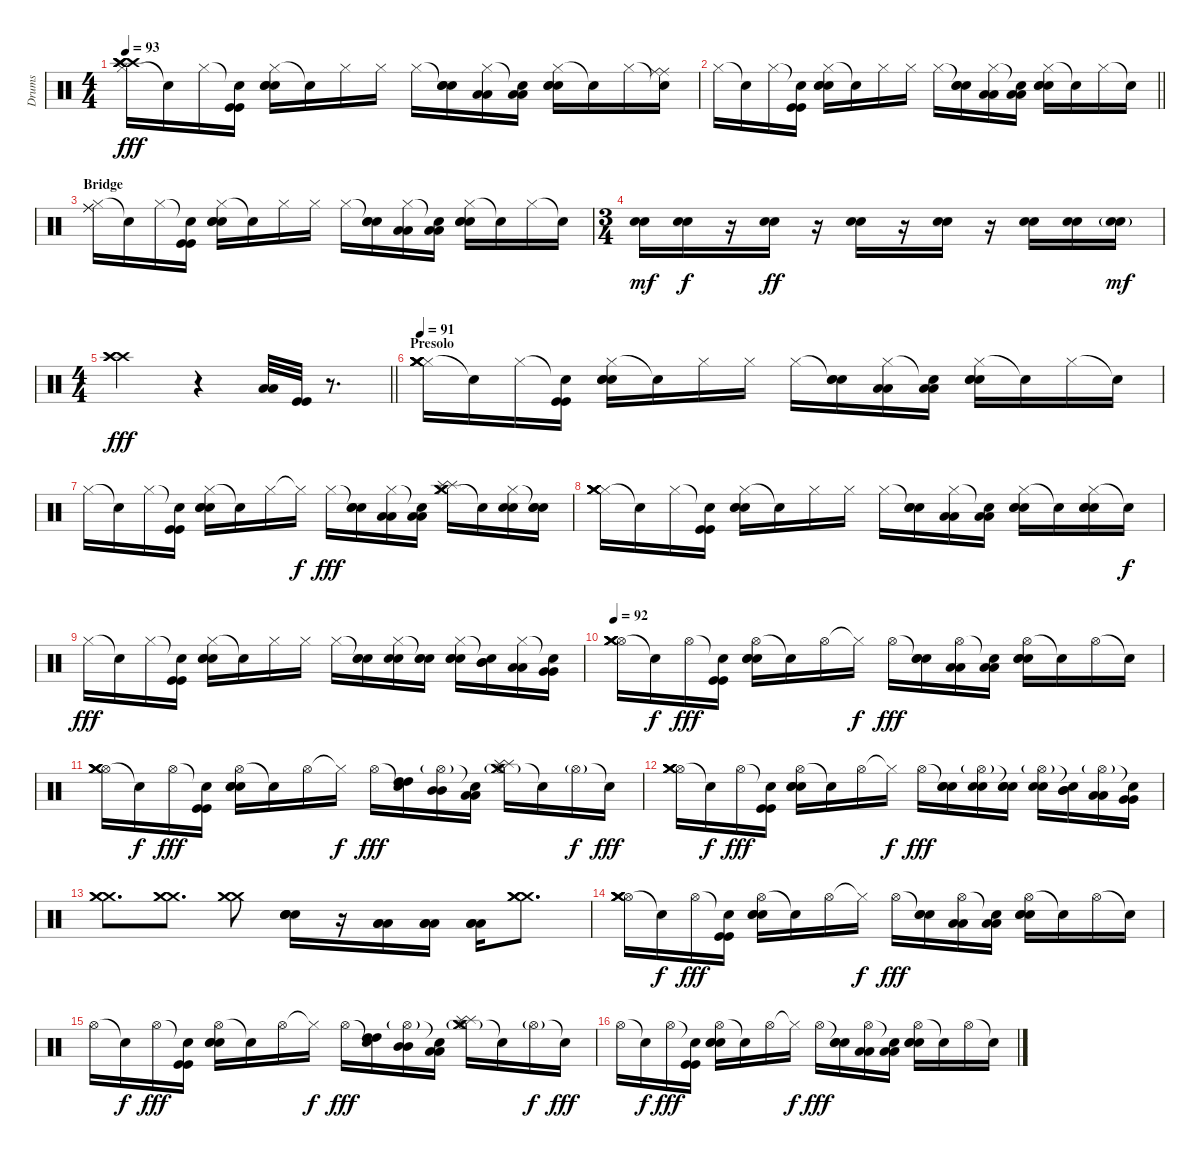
\track ("Drums" "Drums") {instrument percussion}
\staff {score}
\articulation defaults
\ts (4 4)
\tempo 93
\clef neutral
\ks c
("Hi-Hat (closed)" "Crash high (hit)" "Crash high (hit)" "Crash high (hit)" "Crash high (hit)").16{dy fff} "Snare (hit)"{t}.16 "Hi-Hat (closed)".16 ("Snare (hit)"{t} "Kick (hit)" "Kick (hit)").16 ("Hi-Hat (closed)" "Snare (hit) 2" "Snare (hit) 2" "Snare (hit) 2").16 "Snare (hit)"{t}.16 "Hi-Hat (closed)".16 "Hi-Hat (closed)".16 "Hi-Hat (closed)".16 ("Snare (hit)"{t} "Snare (hit) 2" "Snare (hit) 2").16 ("Hi-Hat (closed)" "Low Tom (hit)" "Low Tom (hit)").16 ("Snare (hit)"{t} "Low Tom (hit)" "Low Tom (hit)").16 ("Hi-Hat (closed)" "Snare (hit) 2" "Snare (hit) 2" "Snare (hit) 2").16 "Snare (hit)"{t}.16 "Hi-Hat (closed)".16 ("Snare (hit)"{t} "Ride (middle)" "Ride (middle)").16 |
\barLineRight lightlight "Hi-Hat (closed)".16 "Snare (hit)"{t}.16 "Hi-Hat (closed)".16
("Snare (hit)"{t} "Kick (hit)" "Kick (hit)").16 ("Hi-Hat (closed)" "Snare (hit) 2" "Snare (hit) 2" "Snare (hit) 2").16 "Snare (hit)"{t}.16 "Hi-Hat (closed)".16 "Hi-Hat (closed)".16 "Hi-Hat (closed)".16 ("Snare (hit)"{t} "Snare (hit) 2" "Snare (hit) 2").16 ("Hi-Hat (closed)" "Low Tom (hit)" "Low Tom (hit)").16 ("Snare (hit)"{t} "Low Tom (hit)" "Low Tom (hit)").16 ("Hi-Hat (closed)" "Snare (hit) 2" "Snare (hit) 2" "Snare (hit) 2").16 "Snare (hit)"{t}.16 "Hi-Hat (closed)".16 "Snare (hit)"{t}.16 |
\section ("" "Bridge")
("Hi-Hat (closed)" "Ride (middle)" "Ride (middle)").16 "Snare (hit)"{t}.16 "Hi-Hat (closed)".16 ("Snare (hit)"{t} "Kick (hit)" "Kick (hit)").16 ("Hi-Hat (closed)" "Snare (hit) 2" "Snare (hit) 2" "Snare (hit) 2").16 "Snare (hit)"{t}.16 "Hi-Hat (closed)".16 "Hi-Hat (closed)".16 "Hi-Hat (closed)".16 ("Snare (hit)"{t} "Snare (hit) 2" "Snare (hit) 2").16 ("Hi-Hat (closed)" "Low Tom (hit)" "Low Tom (hit)").16 ("Snare (hit)"{t} "Low Tom (hit)" "Low Tom (hit)").16 ("Hi-Hat (closed)" "Snare (hit) 2" "Snare (hit) 2" "Snare (hit) 2").16 "Snare (hit)"{t}.16 "Hi-Hat (closed)".16 "Snare (hit)"{t}.16 |
\ts (3 4)
("Snare (hit) 2" "Snare (hit) 2").16{dy mf} ("Snare (hit) 2" "Snare (hit) 2").16{dy f} r.16 ("Snare (hit) 2" "Snare (hit) 2").16{dy ff} r.16 ("Snare (hit) 2" "Snare (hit) 2").16 r.16 ("Snare (hit) 2" "Snare (hit) 2").16 r.16 ("Snare (hit) 2" "Snare (hit) 2").16 ("Snare (hit) 2" "Snare (hit) 2").16 ("Snare (hit) 2"{g} "Snare (hit) 2"{g}).16{dy mf} |
\ts (4 4)
\barLineRight lightlight
("Crash high (hit)" "Crash high (hit)" "Crash high (hit)").2{dy fff} r.4 ("Low Floor Tom (hit)" "Low Floor Tom (hit)").32 ("Kick (hit)" "Kick (hit)").32 r.8{d} |
\section ("" "Presolo")
\tempo 91
("Hi-Hat (closed)" "Crash medium (hit)" "Crash medium (hit)" "Crash medium (hit)" "Crash medium (hit)").16 "Snare (hit)"{t}.16 "Hi-Hat (closed)".16 ("Snare (hit)"{t} "Kick (hit)" "Kick (hit)").16 ("Hi-Hat (closed)" "Snare (hit) 2" "Snare (hit) 2" "Snare (hit) 2").16 "Snare (hit)"{t}.16 "Hi-Hat (closed)".16 "Hi-Hat (closed)".16 "Hi-Hat (closed)".16 ("Snare (hit)"{t} "Snare (hit) 2" "Snare (hit) 2").16 ("Hi-Hat (closed)" "Low Tom (hit)" "Low Tom (hit)").16 ("Snare (hit)"{t} "Low Tom (hit)" "Low Tom (hit)").16 ("Hi-Hat (closed)" "Snare (hit) 2" "Snare (hit) 2" "Snare (hit) 2").16 "Snare (hit)"{t}.16 "Hi-Hat (closed)".16 "Snare (hit)"{t}.16 |
"Hi-Hat (closed)".16 "Snare (hit)"{t}.16 "Hi-Hat (closed)".16 ("Snare (hit)"{t} "Kick (hit)" "Kick (hit)").16 ("Hi-Hat (closed)" "Snare (hit) 2" "Snare (hit) 2" "Snare (hit) 2").16 "Snare (hit)"{t}.16 "Hi-Hat (closed)".16 "Hi-Hat (closed)"{t}.16{dy f} "Hi-Hat (closed)".16{dy fff} ("Snare (hit)"{t} "Snare (hit) 2" "Snare (hit) 2").16 ("Hi-Hat (closed)" "Low Tom (hit)" "Low Tom (hit)").16 ("Snare (hit)"{t} "Low Tom (hit)" "Low Tom (hit)").16 ("Hi-Hat (closed)" "Splash (hit)" "Splash (hit)" "Crash medium (hit)" "Crash medium (hit)").16 "Snare (hit)"{t}.16 ("Hi-Hat (closed)" "Snare (hit) 2" "Snare (hit) 2").16 ("Snare (hit)"{t} "Snare (hit) 2" "Snare (hit) 2").16 |
("Hi-Hat (closed)" "Crash medium (hit)" "Crash medium (hit)" "Crash medium (hit)" "Crash medium (hit)").16 "Snare (hit)"{t}.16 "Hi-Hat (closed)".16 ("Snare (hit)"{t} "Kick (hit)" "Kick (hit)").16 ("Hi-Hat (closed)" "Snare (hit) 2" "Snare (hit) 2" "Snare (hit) 2").16 "Snare (hit)"{t}.16 "Hi-Hat (closed)".16 "Hi-Hat (closed)".16 "Hi-Hat (closed)".16 ("Snare (hit)"{t} "Snare (hit) 2" "Snare (hit) 2").16 ("Hi-Hat (closed)" "Low Tom (hit)" "Low Tom (hit)").16 ("Snare (hit)"{t} "Low Tom (hit)" "Low Tom (hit)").16 ("Hi-Hat (closed)" "Snare (hit) 2" "Snare (hit) 2" "Snare (hit) 2").16 "Snare (hit)"{t}.16 ("Hi-Hat (closed)" "Snare (hit) 2" "Snare (hit) 2" "Snare (hit) 2").16 "Snare (hit)"{t}.16{dy f} |
"Hi-Hat (closed)".16{dy fff} "Snare (hit)"{t}.16 "Hi-Hat (closed)".16 ("Snare (hit)"{t} "Kick (hit)" "Kick (hit)").16 ("Hi-Hat (closed)" "Snare (hit) 2" "Snare (hit) 2" "Snare (hit) 2").16 "Snare (hit)"{t}.16 "Hi-Hat (closed)".16 "Hi-Hat (closed)".16 "Hi-Hat (closed)".16 ("Snare (hit)"{t} "Snare (hit) 2" "Snare (hit) 2").16 ("Hi-Hat (closed)" "Snare (hit) 2" "Snare (hit) 2").16 ("Snare (hit)"{t} "Snare (hit) 2" "Snare (hit) 2").16 ("Hi-Hat (closed)" "Snare (hit) 2" "Snare (hit) 2" "Snare (hit) 2").16 ("Snare (hit)"{t} "Mid Tom (hit)" "Mid Tom (hit)").16 ("Hi-Hat (closed)" "Low Tom (hit)" "Low Tom (hit)").16 ("Snare (hit)"{t} "Very Low Tom (hit)" "Very Low Tom (hit)").16 |
\tempo 92
("Hi-Hat (open)" "Crash medium (hit)" "Crash medium (hit)" "Crash medium (hit)" "Crash medium (hit)").16 "Snare (hit)"{t}.16{dy f} "Hi-Hat (open)".16{dy fff} ("Snare (hit)"{t} "Kick (hit)" "Kick (hit)").16 ("Hi-Hat (open)" "Snare (hit) 2" "Snare (hit) 2" "Snare (hit) 2").16 "Snare (hit)"{t}.16 "Hi-Hat (open)".16 "Hi-Hat (closed)"{t}.16{dy f} "Hi-Hat (open)".16{dy fff} ("Snare (hit)"{t} "Snare (hit) 2" "Snare (hit) 2").16 ("Hi-Hat (open)" "Low Tom (hit)" "Low Tom (hit)").16 ("Snare (hit)"{t} "Low Tom (hit)" "Low Tom (hit)").16 ("Hi-Hat (open)" "Snare (hit) 2" "Snare (hit) 2" "Snare (hit) 2").16 "Snare (hit)"{t}.16 "Hi-Hat (open)".16 "Snare (hit)"{t}.16 |
("Hi-Hat (open)" "Crash medium (hit)" "Crash medium (hit)" "Crash medium (hit)" "Crash medium (hit)").16 "Snare (hit)"{t}.16{dy f} "Hi-Hat (open)".16{dy fff} ("Snare (hit)"{t} "Kick (hit)" "Kick (hit)").16 ("Hi-Hat (open)" "Snare (hit) 2" "Snare (hit) 2" "Snare (hit) 2").16 "Snare (hit)"{t}.16 "Hi-Hat (open)".16 "Hi-Hat (closed)"{t}.16{dy f} "Hi-Hat (open)".16{dy fff} ("Snare (hit)"{t} "High Tom (hit)" "High Tom (hit)").16 ("Hi-Hat (open)"{g} "Mid Tom (hit)" "Mid Tom (hit)").16 ("Snare (hit)"{t} "Low Tom (hit)" "Low Tom (hit)").16 ("Hi-Hat (open)"{g} "Splash (hit)" "Splash (hit)" "Crash medium (hit)" "Crash medium (hit)").16 "Snare (hit)"{t}.16 "Hi-Hat (open)"{g}.16{dy f} "Snare (hit)"{t}.16{dy fff} |
("Hi-Hat (open)" "Crash medium (hit)" "Crash medium (hit)" "Crash medium (hit)" "Crash medium (hit)").16 "Snare (hit)"{t}.16{dy f} "Hi-Hat (open)".16{dy fff} ("Snare (hit)"{t} "Kick (hit)" "Kick (hit)").16 ("Hi-Hat (open)" "Snare (hit) 2" "Snare (hit) 2" "Snare (hit) 2").16 "Snare (hit)"{t}.16 "Hi-Hat (open)".16 "Hi-Hat (closed)"{t}.16{dy f} "Hi-Hat (open)".16{dy fff} ("Snare (hit)"{t} "Snare (hit) 2" "Snare (hit) 2").16 ("Hi-Hat (open)"{g} "Snare (hit) 2" "Snare (hit) 2").16 ("Snare (hit)"{t} "Snare (hit) 2" "Snare (hit) 2").16 ("Hi-Hat (open)"{g} "Snare (hit) 2" "Snare (hit) 2").16 ("Snare (hit)"{t} "Mid Tom (hit)" "Mid Tom (hit)").16 ("Hi-Hat (open)"{g} "Low Tom (hit)" "Low Tom (hit)").16 ("Snare (hit)"{t} "Very Low Tom (hit)" "Very Low Tom (hit)").16 |
("Crash medium (hit)" "Crash medium (hit)" "Crash medium (hit)").8{d} ("Crash medium (hit)" "Crash medium (hit)" "Crash medium (hit)").8{d} ("Crash medium (hit)" "Crash medium (hit)" "Crash medium (hit)").8 ("Snare (hit) 2" "Snare (hit) 2" "Snare (hit) 2" "Snare (hit) 2").16 r.16 ("Low Tom (hit)" "Low Tom (hit)" "Low Tom (hit)").16 ("Low Tom (hit)" "Low Tom (hit)" "Low Tom (hit)").16 ("Low Tom (hit)" "Low Tom (hit)" "Low Tom (hit)").16 ("Crash medium (hit)" "Crash medium (hit)" "Crash medium (hit)" "Crash medium (hit)").8{d} |
("Hi-Hat (open)" "Crash medium (hit)" "Crash medium (hit)" "Crash medium (hit)" "Crash medium (hit)").16 "Snare (hit)"{t}.16{dy f} "Hi-Hat (open)".16{dy fff} ("Snare (hit)"{t} "Kick (hit)" "Kick (hit)").16 ("Hi-Hat (open)" "Snare (hit) 2" "Snare (hit) 2" "Snare (hit) 2").16 "Snare (hit)"{t}.16 "Hi-Hat (open)".16 "Hi-Hat (closed)"{t}.16{dy f} "Hi-Hat (open)".16{dy fff} ("Snare (hit)"{t} "Snare (hit) 2" "Snare (hit) 2").16 ("Hi-Hat (open)" "Low Tom (hit)" "Low Tom (hit)").16 ("Snare (hit)"{t} "Low Tom (hit)" "Low Tom (hit)").16 ("Hi-Hat (open)" "Snare (hit) 2" "Snare (hit) 2" "Snare (hit) 2").16 "Snare (hit)"{t}.16 "Hi-Hat (open)".16 "Snare (hit)"{t}.16 |
"Hi-Hat (open)".16 "Snare (hit)"{t}.16{dy f} "Hi-Hat (open)".16{dy fff} ("Snare (hit)"{t} "Kick (hit)" "Kick (hit)").16 ("Hi-Hat (open)" "Snare (hit) 2" "Snare (hit) 2" "Snare (hit) 2").16 "Snare (hit)"{t}.16 "Hi-Hat (open)".16 "Hi-Hat (closed)"{t}.16{dy f} "Hi-Hat (open)".16{dy fff} ("Snare (hit)"{t} "High Tom (hit)" "High Tom (hit)").16 ("Hi-Hat (open)"{g} "Mid Tom (hit)" "Mid Tom (hit)").16 ("Snare (hit)"{t} "Low Tom (hit)" "Low Tom (hit)").16 ("Hi-Hat (open)"{g} "Splash (hit)" "Splash (hit)" "Crash medium (hit)" "Crash medium (hit)").16 "Snare (hit)"{t}.16 "Hi-Hat (open)"{g}.16{dy f} "Snare (hit)"{t}.16{dy fff} |
"Hi-Hat (open)".16 "Snare (hit)"{t}.16{dy f} "Hi-Hat (open)".16{dy fff} ("Snare (hit)"{t} "Kick (hit)" "Kick (hit)").16 ("Hi-Hat (open)" "Snare (hit) 2" "Snare (hit) 2" "Snare (hit) 2").16 "Snare (hit)"{t}.16 "Hi-Hat (open)".16 "Hi-Hat (closed)"{t}.16{dy f} "Hi-Hat (open)".16{dy fff} ("Snare (hit)"{t} "Snare (hit) 2" "Snare (hit) 2").16 ("Hi-Hat (open)" "Low Tom (hit)" "Low Tom (hit)").16 ("Snare (hit)"{t} "Low Tom (hit)" "Low Tom (hit)").16 ("Hi-Hat (open)" "Snare (hit) 2" "Snare (hit) 2" "Snare (hit) 2").16 "Snare (hit)"{t}.16 "Hi-Hat (open)".16 "Snare (hit)"{t}.16
